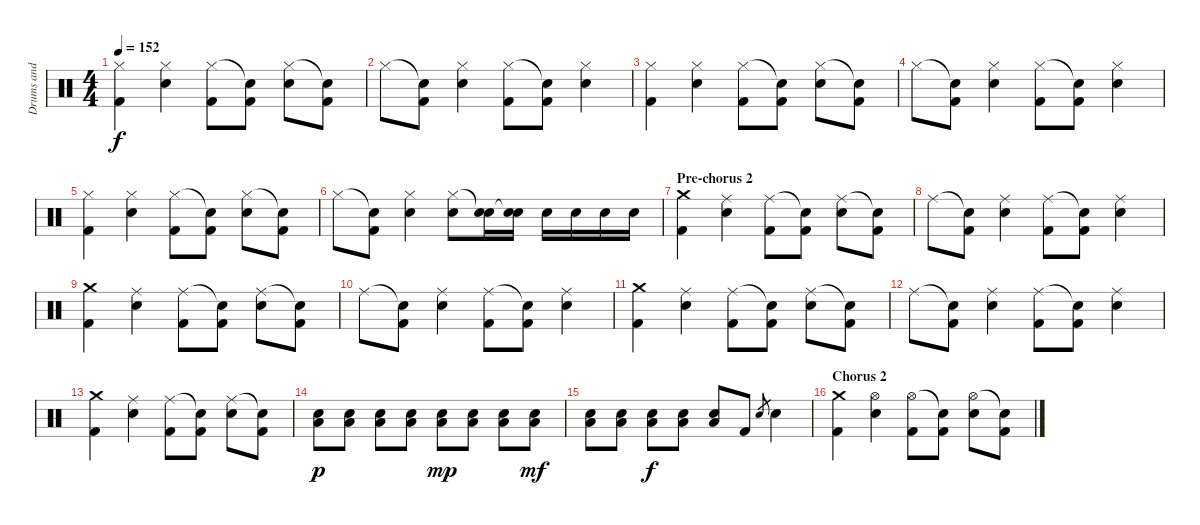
\track ("Drums and Percussion" "Drums and ") {instrument percussion}
\staff {score}
\articulation defaults
\ts (4 4)
\tempo 152
\clef neutral
\ks c
("Hi-Hat (closed)" "Kick (hit) 2").4{dy f} ("Hi-Hat (closed)" "Snare (hit) 2").4 ("Hi-Hat (closed)" "Kick (hit) 2").8 ("Snare (hit)"{t} "Kick (hit) 2").8 ("Hi-Hat (closed)" "Snare (hit) 2").8 ("Snare (hit)"{t} "Kick (hit) 2").8 |
"Hi-Hat (closed)".8 ("Snare (hit)"{t} "Kick (hit) 2").8 ("Hi-Hat (closed)" "Snare (hit) 2").4 ("Hi-Hat (closed)" "Kick (hit) 2").8 ("Snare (hit)"{t} "Kick (hit) 2").8 ("Hi-Hat (closed)" "Snare (hit) 2").4 |
("Hi-Hat (closed)" "Kick (hit) 2").4 ("Hi-Hat (closed)" "Snare (hit) 2").4 ("Hi-Hat (closed)" "Kick (hit) 2").8 ("Snare (hit)"{t} "Kick (hit) 2").8 ("Hi-Hat (closed)" "Snare (hit) 2").8 ("Snare (hit)"{t} "Kick (hit) 2").8 |
"Hi-Hat (closed)".8 ("Snare (hit)"{t} "Kick (hit) 2").8 ("Hi-Hat (closed)" "Snare (hit) 2").4 ("Hi-Hat (closed)" "Kick (hit) 2").8 ("Snare (hit)"{t} "Kick (hit) 2").8 ("Hi-Hat (closed)" "Snare (hit) 2").4 |
("Hi-Hat (closed)" "Kick (hit) 2").4 ("Hi-Hat (closed)" "Snare (hit) 2").4 ("Hi-Hat (closed)" "Kick (hit) 2").8 ("Snare (hit)"{t} "Kick (hit) 2").8 ("Hi-Hat (closed)" "Snare (hit) 2").8 ("Snare (hit)"{t} "Kick (hit) 2").8 |
"Hi-Hat (closed)".8 ("Snare (hit)"{t} "Kick (hit) 2").8 ("Hi-Hat (closed)" "Snare (hit) 2").4 ("Hi-Hat (closed)" "Snare (hit) 2").8 ("Snare (hit)"{t} "Snare (hit) 2").16 ("Snare (hit)"{t} "Snare (hit) 2").16 "Snare (hit) 2".16 "Snare (hit) 2".16 "Snare (hit) 2".16 "Snare (hit) 2".16 |
\section ("" "Pre-chorus 2")
("Crash medium (hit)" "Kick (hit) 2").4 ("Ride (middle)" "Snare (hit) 2").4 ("Ride (middle)" "Kick (hit) 2").8 ("Snare (hit)"{t} "Kick (hit) 2").8 ("Ride (middle)" "Snare (hit) 2").8 ("Snare (hit)"{t} "Kick (hit) 2").8 |
"Ride (middle)".8 ("Snare (hit)"{t} "Kick (hit) 2").8 ("Ride (middle)" "Snare (hit) 2").4 ("Ride (middle)" "Kick (hit) 2").8 ("Snare (hit)"{t} "Kick (hit) 2").8 ("Ride (middle)" "Snare (hit) 2").4 |
("Crash medium (hit)" "Kick (hit) 2").4 ("Ride (middle)" "Snare (hit) 2").4 ("Ride (middle)" "Kick (hit) 2").8 ("Snare (hit)"{t} "Kick (hit) 2").8 ("Ride (middle)" "Snare (hit) 2").8 ("Snare (hit)"{t} "Kick (hit) 2").8 |
"Ride (middle)".8 ("Snare (hit)"{t} "Kick (hit) 2").8 ("Ride (middle)" "Snare (hit) 2").4 ("Ride (middle)" "Kick (hit) 2").8 ("Snare (hit)"{t} "Kick (hit) 2").8 ("Ride (middle)" "Snare (hit) 2").4 |
("Crash medium (hit)" "Kick (hit) 2").4 ("Ride (middle)" "Snare (hit) 2").4 ("Ride (middle)" "Kick (hit) 2").8 ("Snare (hit)"{t} "Kick (hit) 2").8 ("Ride (middle)" "Snare (hit) 2").8 ("Snare (hit)"{t} "Kick (hit) 2").8 |
"Ride (middle)".8 ("Snare (hit)"{t} "Kick (hit) 2").8 ("Ride (middle)" "Snare (hit) 2").4 ("Ride (middle)" "Kick (hit) 2").8 ("Snare (hit)"{t} "Kick (hit) 2").8 ("Ride (middle)" "Snare (hit) 2").4 |
("Crash medium (hit)" "Kick (hit) 2").4 ("Ride (middle)" "Snare (hit) 2").4 ("Ride (middle)" "Kick (hit) 2").8 ("Snare (hit)"{t} "Kick (hit) 2").8 ("Ride (middle)" "Snare (hit) 2").8 ("Snare (hit)"{t} "Kick (hit) 2").8 |
("Snare (hit) 2" "Low Floor Tom (hit)").8{dy p} ("Snare (hit) 2" "Low Floor Tom (hit)").8 ("Snare (hit) 2" "Low Floor Tom (hit)").8 ("Snare (hit) 2" "Low Floor Tom (hit)").8 ("Snare (hit) 2" "Low Floor Tom (hit)").8{dy mp} ("Snare (hit) 2" "Low Floor Tom (hit)").8 ("Snare (hit) 2" "Low Floor Tom (hit)").8 ("Snare (hit) 2" "Low Floor Tom (hit)").8{dy mf} |
("Snare (hit) 2" "Low Floor Tom (hit)").8 ("Snare (hit) 2" "Low Floor Tom (hit)").8 ("Snare (hit) 2" "Low Floor Tom (hit)").8{dy f} ("Snare (hit) 2" "Low Floor Tom (hit)").8 ("Snare (hit) 2" "Low Floor Tom (hit)").8 "Kick (hit) 2".8 "Snare (hit) 2".8{gr} "Snare (hit) 2".4 |
\section ("" "Chorus 2")
("Crash medium (hit)" "Kick (hit) 2").4 ("Hi-Hat (open)" "Snare (hit) 2").4 ("Hi-Hat (open)" "Kick (hit) 2").8 ("Snare (hit)"{t} "Kick (hit) 2").8 ("Hi-Hat (open)" "Snare (hit) 2").8 ("Snare (hit)"{t} "Kick (hit) 2").8
